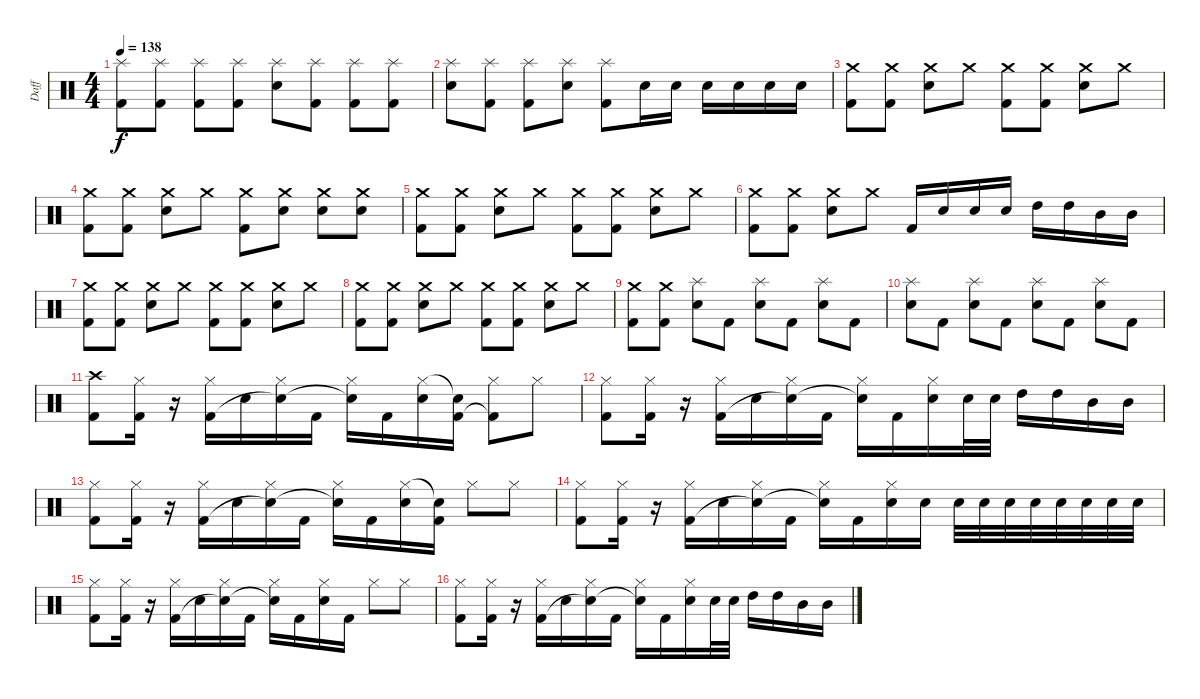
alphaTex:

\track ("Daff" "Daff") {instrument percussion}
\staff {score}
\articulation defaults
\ts (4 4)
\tempo 138
\clef neutral
\ks c
("Splash (hit)" "Kick (hit) 2").8{dy f} ("Splash (hit)" "Kick (hit) 2").8 ("Splash (hit)" "Kick (hit) 2").8 ("Splash (hit)" "Kick (hit) 2").8 ("Splash (hit)" "Electric Snare (hit)").8 ("Splash (hit)" "Kick (hit) 2").8 ("Splash (hit)" "Kick (hit) 2").8 ("Splash (hit)" "Kick (hit) 2").8 |
("Splash (hit)" "Electric Snare (hit)").8 ("Splash (hit)" "Kick (hit) 2").8 ("Splash (hit)" "Kick (hit) 2").8 ("Splash (hit)" "Electric Snare (hit)").8 ("Splash (hit)" "Kick (hit) 2").8 "Electric Snare (hit)".16 "Electric Snare (hit)".16 "Electric Snare (hit)".16 "Electric Snare (hit)".16 "Electric Snare (hit)".16 "Electric Snare (hit)".16 |
("Crash medium (hit)" "Kick (hit) 2").8 ("Crash medium (hit)" "Kick (hit) 2").8 ("Crash medium (hit)" "Electric Snare (hit)").8 "Crash medium (hit)".8 ("Crash medium (hit)" "Kick (hit) 2").8 ("Crash medium (hit)" "Kick (hit) 2").8 ("Crash medium (hit)" "Electric Snare (hit)").8 "Crash medium (hit)".8 |
("Crash medium (hit)" "Kick (hit) 2").8 ("Crash medium (hit)" "Kick (hit) 2").8 ("Crash medium (hit)" "Electric Snare (hit)").8 "Crash medium (hit)".8 ("Crash medium (hit)" "Kick (hit) 2").8 ("Crash medium (hit)" "Electric Snare (hit)").8 ("Crash medium (hit)" "Electric Snare (hit)").8 ("Crash medium (hit)" "Electric Snare (hit)").8 |
("Crash medium (hit)" "Kick (hit) 2").8 ("Crash medium (hit)" "Kick (hit) 2").8 ("Crash medium (hit)" "Electric Snare (hit)").8 "Crash medium (hit)".8 ("Crash medium (hit)" "Kick (hit) 2").8 ("Crash medium (hit)" "Kick (hit) 2").8 ("Crash medium (hit)" "Electric Snare (hit)").8 "Crash medium (hit)".8 |
("Crash medium (hit)" "Kick (hit) 2").8 ("Crash medium (hit)" "Kick (hit) 2").8 ("Crash medium (hit)" "Electric Snare (hit)").8 "Crash medium (hit)".8 "Kick (hit) 2".16 "Electric Snare (hit)".16 "Electric Snare (hit)".16 "Electric Snare (hit)".16 "High Tom (hit)".16 "High Tom (hit)".16 "Mid Tom (hit)".16 "Mid Tom (hit)".16 |
("Crash medium (hit)" "Kick (hit) 2").8 ("Crash medium (hit)" "Kick (hit) 2").8 ("Crash medium (hit)" "Electric Snare (hit)").8 "Crash medium (hit)".8 ("Crash medium (hit)" "Kick (hit) 2").8 ("Crash medium (hit)" "Kick (hit) 2").8 ("Crash medium (hit)" "Electric Snare (hit)").8 "Crash medium (hit)".8 |
("Crash medium (hit)" "Kick (hit) 2").8 ("Crash medium (hit)" "Kick (hit) 2").8 ("Crash medium (hit)" "Electric Snare (hit)").8 "Crash medium (hit)".8 ("Crash medium (hit)" "Kick (hit) 2").8 ("Crash medium (hit)" "Kick (hit) 2").8 ("Crash medium (hit)" "Electric Snare (hit)").8 "Crash medium (hit)".8 |
("Crash medium (hit)" "Kick (hit) 2").8 ("Crash medium (hit)" "Kick (hit) 2").8 ("Splash (hit)" "Electric Snare (hit)").8 "Kick (hit) 2".8 ("Splash (hit)" "Electric Snare (hit)").8 "Kick (hit) 2".8 ("Splash (hit)" "Electric Snare (hit)").8 "Kick (hit) 2".8 |
("Splash (hit)" "Electric Snare (hit)").8 "Kick (hit) 2".8 ("Splash (hit)" "Electric Snare (hit)").8 "Kick (hit) 2".8 ("Splash (hit)" "Electric Snare (hit)").8 "Kick (hit) 2".8 ("Splash (hit)" "Electric Snare (hit)").8 "Kick (hit) 2".8 |
("Crash high (hit)" "Kick (hit) 2").8 ("Hi-Hat (closed)" "Kick (hit) 2").16 r.16 ("Hi-Hat (closed)" "Kick (hit) 2").16 "Electric Snare (hit)".16 ("Hi-Hat (closed)" "Snare (hit)"{t}).16 "Kick (hit) 2".16 ("Hi-Hat (closed)" "Snare (hit)"{t}).16 "Kick (hit) 2".16 ("Hi-Hat (closed)" "Electric Snare (hit)").16 ("Snare (hit)"{t} "Kick (hit) 2").16 ("Hi-Hat (closed)" "Kick (hit) 2"{t}).8 "Hi-Hat (closed)".8 |
("Hi-Hat (closed)" "Kick (hit) 2").8 ("Hi-Hat (closed)" "Kick (hit) 2").16 r.16 ("Hi-Hat (closed)" "Kick (hit) 2").16 "Electric Snare (hit)".16 ("Hi-Hat (closed)" "Snare (hit)"{t}).16 "Kick (hit) 2".16 ("Hi-Hat (closed)" "Snare (hit)"{t}).16 "Kick (hit) 2".16 ("Hi-Hat (closed)" "Electric Snare (hit)").16 "Electric Snare (hit)".32 "Electric Snare (hit)".32 "High Tom (hit)".16 "High Tom (hit)".16 "Mid Tom (hit)".16 "Mid Tom (hit)".16 |
("Hi-Hat (closed)" "Kick (hit) 2").8 ("Hi-Hat (closed)" "Kick (hit) 2").16 r.16 ("Hi-Hat (closed)" "Kick (hit) 2").16 "Electric Snare (hit)".16 ("Hi-Hat (closed)" "Snare (hit)"{t}).16 "Kick (hit) 2".16 ("Hi-Hat (closed)" "Snare (hit)"{t}).16 "Kick (hit) 2".16 ("Hi-Hat (closed)" "Electric Snare (hit)").16 ("Snare (hit)"{t} "Kick (hit) 2").16 "Hi-Hat (closed)".8 "Hi-Hat (closed)".8 |
("Hi-Hat (closed)" "Kick (hit) 2").8 ("Hi-Hat (closed)" "Kick (hit) 2").16 r.16 ("Hi-Hat (closed)" "Kick (hit) 2").16 "Electric Snare (hit)".16 ("Hi-Hat (closed)" "Snare (hit)"{t}).16 "Kick (hit) 2".16 ("Hi-Hat (closed)" "Snare (hit)"{t}).16 "Kick (hit) 2".16 ("Hi-Hat (closed)" "Electric Snare (hit)").16 "Electric Snare (hit)".16 "Electric Snare (hit)".32 "Electric Snare (hit)".32 "Electric Snare (hit)".32 "Electric Snare (hit)".32 "Electric Snare (hit)".32 "Electric Snare (hit)".32 "Electric Snare (hit)".32 "Electric Snare (hit)".32 |
("Hi-Hat (closed)" "Kick (hit) 2").8 ("Hi-Hat (closed)" "Kick (hit) 2").16 r.16 ("Hi-Hat (closed)" "Kick (hit) 2").16 "Electric Snare (hit)".16 ("Hi-Hat (closed)" "Snare (hit)"{t}).16 "Kick (hit) 2".16 ("Hi-Hat (closed)" "Snare (hit)"{t}).16 "Kick (hit) 2".16 ("Hi-Hat (closed)" "Electric Snare (hit)").16 "Kick (hit) 2".16 "Hi-Hat (closed)".8 "Hi-Hat (closed)".8 |
("Hi-Hat (closed)" "Kick (hit) 2").8 ("Hi-Hat (closed)" "Kick (hit) 2").16 r.16 ("Hi-Hat (closed)" "Kick (hit) 2").16 "Electric Snare (hit)".16 ("Hi-Hat (closed)" "Snare (hit)"{t}).16 "Kick (hit) 2".16 ("Hi-Hat (closed)" "Snare (hit)"{t}).16 "Kick (hit) 2".16 ("Hi-Hat (closed)" "Electric Snare (hit)").16 "Electric Snare (hit)".32 "Electric Snare (hit)".32 "High Tom (hit)".16 "High Tom (hit)".16 "Mid Tom (hit)".16 "Mid Tom (hit)".16
